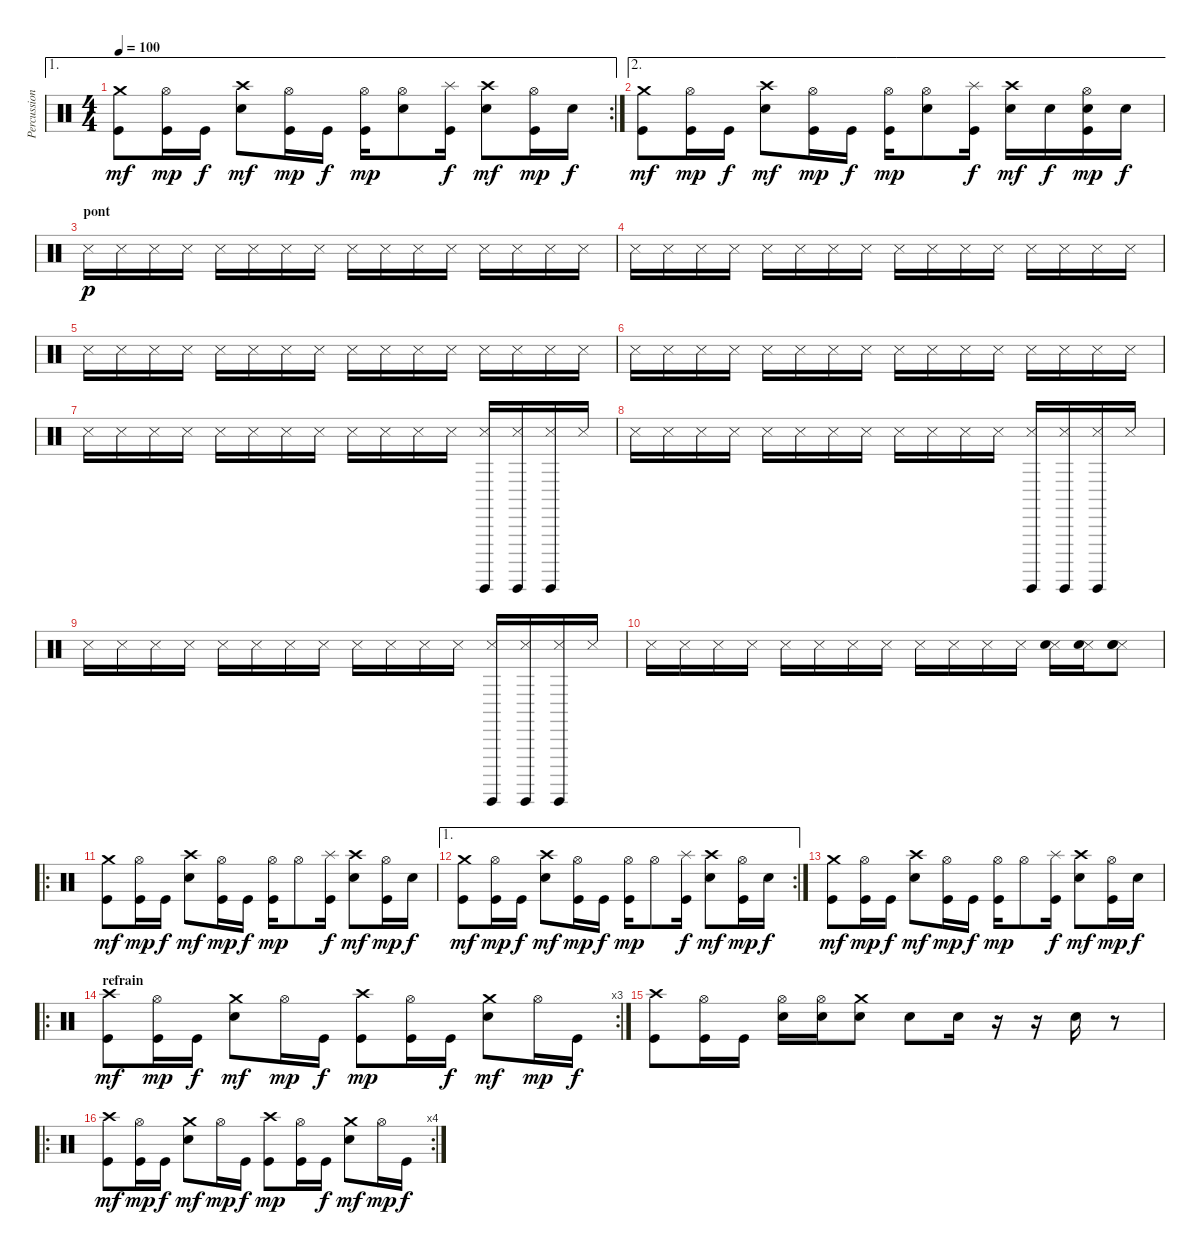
\track ("Percussions" "Percussion") {instrument percussion}
\staff {score}
\articulation defaults
\ae 1
\rc 2
\ts (4 4)
\tempo 100
\clef neutral
\ks c
("Crash medium (hit)" "Kick (hit)").8{dy mf} ("Hi-Hat (open)" "Kick (hit)").16{dy mp} "Kick (hit)".16{dy f} ("Crash high (hit)" "Electric Snare (hit)").8{dy mf} ("Hi-Hat (open)" "Kick (hit)").16{dy mp} "Kick (hit)".16{dy f} ("Hi-Hat (open)" "Kick (hit)").16{dy mp} ("Hi-Hat (open)" "Electric Snare (hit)").8 ("Splash (hit)" "Kick (hit)").16{dy f} ("Crash high (hit)" "Electric Snare (hit)").8{dy mf} ("Hi-Hat (open)" "Kick (hit)").16{dy mp} "Electric Snare (hit)".16{dy f} |
\ae 2
("Crash medium (hit)" "Kick (hit)").8{dy mf} ("Hi-Hat (open)" "Kick (hit)").16{dy mp} "Kick (hit)".16{dy f} ("Crash high (hit)" "Electric Snare (hit)").8{dy mf} ("Hi-Hat (open)" "Kick (hit)").16{dy mp} "Kick (hit)".16{dy f} ("Hi-Hat (open)" "Kick (hit)").16{dy mp} ("Hi-Hat (open)" "Electric Snare (hit)").8 ("Splash (hit)" "Kick (hit)").16{dy f} ("Crash high (hit)" "Electric Snare (hit)").16{dy mf} "Electric Snare (hit)".16{dy f} ("Hi-Hat (open)" "Electric Snare (hit)" "Kick (hit)").16{dy mp} "Electric Snare (hit)".16{dy f} |
\section ("" "pont")
"Metronome (hit)".16{dy p} "Metronome (hit)".16 "Metronome (hit)".16 "Metronome (hit)".16 "Metronome (hit)".16 "Metronome (hit)".16 "Metronome (hit)".16 "Metronome (hit)".16 "Metronome (hit)".16 "Metronome (hit)".16 "Metronome (hit)".16 "Metronome (hit)".16 "Metronome (hit)".16 "Metronome (hit)".16 "Metronome (hit)".16 "Metronome (hit)".16 |
"Metronome (hit)".16 "Metronome (hit)".16 "Metronome (hit)".16 "Metronome (hit)".16 "Metronome (hit)".16 "Metronome (hit)".16 "Metronome (hit)".16 "Metronome (hit)".16 "Metronome (hit)".16 "Metronome (hit)".16 "Metronome (hit)".16 "Metronome (hit)".16 "Metronome (hit)".16 "Metronome (hit)".16 "Metronome (hit)".16 "Metronome (hit)".16 |
"Metronome (hit)".16 "Metronome (hit)".16 "Metronome (hit)".16 "Metronome (hit)".16 "Metronome (hit)".16 "Metronome (hit)".16 "Metronome (hit)".16 "Metronome (hit)".16 "Metronome (hit)".16 "Metronome (hit)".16 "Metronome (hit)".16 "Metronome (hit)".16 "Metronome (hit)".16 "Metronome (hit)".16 "Metronome (hit)".16 "Metronome (hit)".16 |
"Metronome (hit)".16 "Metronome (hit)".16 "Metronome (hit)".16 "Metronome (hit)".16 "Metronome (hit)".16 "Metronome (hit)".16 "Metronome (hit)".16 "Metronome (hit)".16 "Metronome (hit)".16 "Metronome (hit)".16 "Metronome (hit)".16 "Metronome (hit)".16 "Metronome (hit)".16 "Metronome (hit)".16 "Metronome (hit)".16 "Metronome (hit)".16 |
"Metronome (hit)".16 "Metronome (hit)".16 "Metronome (hit)".16 "Metronome (hit)".16 "Metronome (hit)".16 "Metronome (hit)".16 "Metronome (hit)".16 "Metronome (hit)".16 "Metronome (hit)".16 "Metronome (hit)".16 "Metronome (hit)".16 "Metronome (hit)".16 ("Metronome (hit)" "Guiro (hit)").16 ("Metronome (hit)" "Guiro (hit)").16 ("Metronome (hit)" "Guiro (hit)").16 "Metronome (hit)".16 |
"Metronome (hit)".16 "Metronome (hit)".16 "Metronome (hit)".16 "Metronome (hit)".16 "Metronome (hit)".16 "Metronome (hit)".16 "Metronome (hit)".16 "Metronome (hit)".16 "Metronome (hit)".16 "Metronome (hit)".16 "Metronome (hit)".16 "Metronome (hit)".16 ("Metronome (hit)" "Guiro (hit)").16 ("Metronome (hit)" "Guiro (hit)").16 ("Metronome (hit)" "Guiro (hit)").16 "Metronome (hit)".16 |
"Metronome (hit)".16 "Metronome (hit)".16 "Metronome (hit)".16 "Metronome (hit)".16 "Metronome (hit)".16 "Metronome (hit)".16 "Metronome (hit)".16 "Metronome (hit)".16 "Metronome (hit)".16 "Metronome (hit)".16 "Metronome (hit)".16 "Metronome (hit)".16 ("Metronome (hit)" "Guiro (hit)").16 ("Metronome (hit)" "Guiro (hit)").16 ("Metronome (hit)" "Guiro (hit)").16 "Metronome (hit)".16 |
"Metronome (hit)".16 "Metronome (hit)".16 "Metronome (hit)".16 "Metronome (hit)".16 "Metronome (hit)".16 "Metronome (hit)".16 "Metronome (hit)".16 "Metronome (hit)".16 "Metronome (hit)".16 "Metronome (hit)".16 "Metronome (hit)".16 "Metronome (hit)".16 ("Metronome (hit)" "Electric Snare (hit)").16 ("Metronome (hit)" "Electric Snare (hit)").16 ("Metronome (hit)" "Electric Snare (hit)" "Electric Snare (hit)").8{bd 120} |
\ro
("Crash medium (hit)" "Kick (hit)").8{dy mf} ("Hi-Hat (open)" "Kick (hit)").16{dy mp} "Kick (hit)".16{dy f} ("Crash high (hit)" "Electric Snare (hit)").8{dy mf} ("Hi-Hat (open)" "Kick (hit)").16{dy mp} "Kick (hit)".16{dy f} ("Hi-Hat (open)" "Kick (hit)").16{dy mp} "Hi-Hat (open)".8 ("Splash (hit)" "Kick (hit)").16{dy f} ("Crash high (hit)" "Electric Snare (hit)").8{dy mf} ("Hi-Hat (open)" "Kick (hit)").16{dy mp} "Electric Snare (hit)".16{dy f} |
\ae 1
\rc 2
("Crash medium (hit)" "Kick (hit)").8{dy mf} ("Hi-Hat (open)" "Kick (hit)").16{dy mp} "Kick (hit)".16{dy f} ("Crash high (hit)" "Electric Snare (hit)").8{dy mf} ("Hi-Hat (open)" "Kick (hit)").16{dy mp} "Kick (hit)".16{dy f} ("Hi-Hat (open)" "Kick (hit)").16{dy mp} "Hi-Hat (open)".8 ("Splash (hit)" "Kick (hit)").16{dy f} ("Crash high (hit)" "Electric Snare (hit)").8{dy mf} ("Hi-Hat (open)" "Kick (hit)").16{dy mp} "Electric Snare (hit)".16{dy f} |
("Crash medium (hit)" "Kick (hit)").8{dy mf} ("Hi-Hat (open)" "Kick (hit)").16{dy mp} "Kick (hit)".16{dy f} ("Crash high (hit)" "Electric Snare (hit)").8{dy mf} ("Hi-Hat (open)" "Kick (hit)").16{dy mp} "Kick (hit)".16{dy f} ("Hi-Hat (open)" "Kick (hit)").16{dy mp} "Hi-Hat (open)".8 ("Splash (hit)" "Kick (hit)").16{dy f} ("Crash high (hit)" "Electric Snare (hit)").8{dy mf} ("Hi-Hat (open)" "Kick (hit)").16{dy mp} "Electric Snare (hit)".16{dy f} |
\ro
\rc 3
\section ("" "refrain")
("Crash high (hit)" "Kick (hit)").8{dy mf} ("Hi-Hat (open)" "Kick (hit)").16{dy mp} "Kick (hit)".16{dy f} ("Crash medium (hit)" "Electric Snare (hit)").8{dy mf} "Hi-Hat (open)".16{dy mp} "Kick (hit)".16{dy f} ("Crash high (hit)" "Kick (hit)").8{dy mp} ("Hi-Hat (open)" "Kick (hit)").16 "Kick (hit)".16{dy f} ("Crash medium (hit)" "Electric Snare (hit)").8{dy mf} "Hi-Hat (open)".16{dy mp} "Kick (hit)".16{dy f} |
("Crash high (hit)" "Kick (hit)").8 ("Hi-Hat (open)" "Kick (hit)").16 "Kick (hit)".16 ("Hi-Hat (open)" "Electric Snare (hit)").16 ("Hi-Hat (open)" "Electric Snare (hit)").16 ("Crash medium (hit)" "Electric Snare (hit)").8 "Electric Snare (hit)".8 "Electric Snare (hit)".16 r.16 r.16 "Electric Snare (hit)".16 r.8 |
\ro
\rc 4
("Crash high (hit)" "Kick (hit)").8{dy mf} ("Hi-Hat (open)" "Kick (hit)").16{dy mp} "Kick (hit)".16{dy f} ("Crash medium (hit)" "Electric Snare (hit)").8{dy mf} "Hi-Hat (open)".16{dy mp} "Kick (hit)".16{dy f} ("Crash high (hit)" "Kick (hit)").8{dy mp} ("Hi-Hat (open)" "Kick (hit)").16 "Kick (hit)".16{dy f} ("Crash medium (hit)" "Electric Snare (hit)").8{dy mf} "Hi-Hat (open)".16{dy mp} "Kick (hit)".16{dy f}
